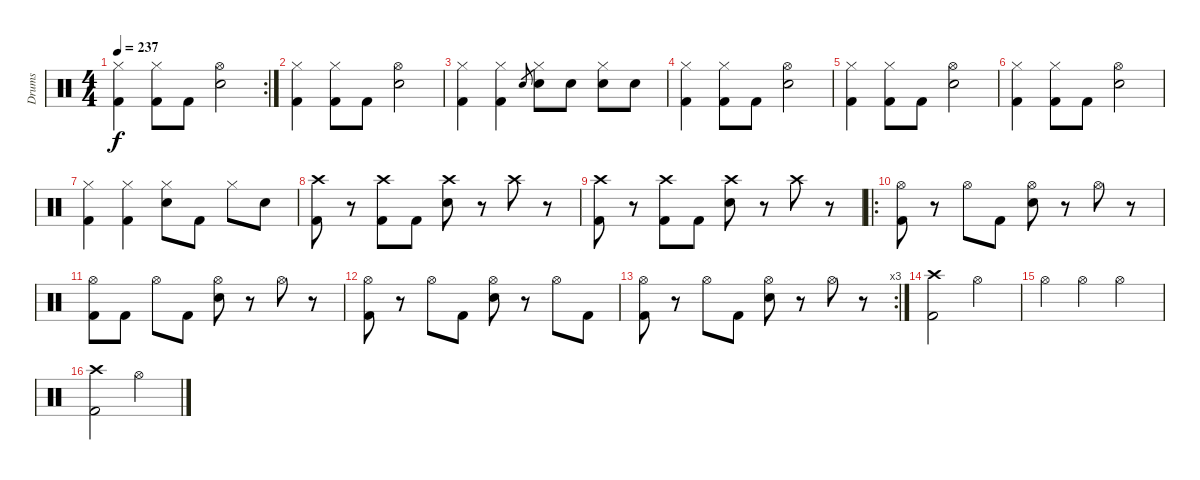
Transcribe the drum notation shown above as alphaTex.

\track ("Drums" "Drums") {instrument percussion}
\staff {score}
\articulation defaults
\rc 2
\ts (4 4)
\tempo 237
\clef neutral
\ks c
("Hi-Hat (closed)" "Kick (hit) 2").4{dy f} ("Hi-Hat (closed)" "Kick (hit) 2").8 "Kick (hit) 2".8 ("Hi-Hat (open)" "Snare (hit) 2").2 |
("Hi-Hat (closed)" "Kick (hit) 2").4 ("Hi-Hat (closed)" "Kick (hit) 2").8 "Kick (hit) 2".8 ("Hi-Hat (open)" "Snare (hit) 2").2 |
("Hi-Hat (closed)" "Kick (hit) 2").4 ("Hi-Hat (closed)" "Kick (hit) 2").4 "Snare (hit) 2".8{gr} ("Hi-Hat (closed)" "Snare (hit) 2").8 "Snare (hit) 2".8 ("Hi-Hat (closed)" "Snare (hit) 2").8 "Snare (hit) 2".8 |
("Hi-Hat (closed)" "Kick (hit) 2").4 ("Hi-Hat (closed)" "Kick (hit) 2").8 "Kick (hit) 2".8 ("Hi-Hat (open)" "Snare (hit) 2").2 |
("Hi-Hat (closed)" "Kick (hit) 2").4 ("Hi-Hat (closed)" "Kick (hit) 2").8 "Kick (hit) 2".8 ("Hi-Hat (open)" "Snare (hit) 2").2 |
("Hi-Hat (closed)" "Kick (hit) 2").4 ("Hi-Hat (closed)" "Kick (hit) 2").8 "Kick (hit) 2".8 ("Hi-Hat (open)" "Snare (hit) 2").2 |
("Hi-Hat (closed)" "Kick (hit) 2").4 ("Hi-Hat (closed)" "Kick (hit) 2").4 ("Hi-Hat (closed)" "Snare (hit) 2").8 "Kick (hit) 2".8 "Hi-Hat (closed)".8 "Snare (hit) 2".8 |
("Crash high (hit)" "Kick (hit) 2").8 r.8 ("Crash high (hit)" "Kick (hit) 2").8 "Kick (hit) 2".8 ("Crash high (hit)" "Snare (hit) 2").8 r.8 "Crash high (hit)".8 r.8 |
("Crash high (hit)" "Kick (hit) 2").8 r.8 ("Crash high (hit)" "Kick (hit) 2").8 "Kick (hit) 2".8 ("Crash high (hit)" "Snare (hit) 2").8 r.8 "Crash high (hit)".8 r.8 |
\ro
("Hi-Hat (open)" "Kick (hit) 2").8 r.8 "Hi-Hat (open)".8 "Kick (hit) 2".8 ("Hi-Hat (open)" "Snare (hit) 2").8 r.8 "Hi-Hat (open)".8 r.8 |
("Hi-Hat (open)" "Kick (hit) 2").8 "Kick (hit) 2".8 "Hi-Hat (open)".8 "Kick (hit) 2".8 ("Hi-Hat (open)" "Snare (hit) 2").8 r.8 "Hi-Hat (open)".8 r.8 |
("Hi-Hat (open)" "Kick (hit) 2").8 r.8 "Hi-Hat (open)".8 "Kick (hit) 2".8 ("Hi-Hat (open)" "Snare (hit) 2").8 r.8 "Hi-Hat (open)".8 "Kick (hit) 2".8 |
\rc 3
("Hi-Hat (open)" "Kick (hit) 2").8 r.8 "Hi-Hat (open)".8 "Kick (hit) 2".8 ("Hi-Hat (open)" "Snare (hit) 2").8 r.8 "Hi-Hat (open)".8 r.8 |
("Crash high (hit)" "Kick (hit) 2").2 "Hi-Hat (open)".2 |
"Hi-Hat (open)".4 "Hi-Hat (open)".4 "Hi-Hat (open)".2 |
("Crash high (hit)" "Kick (hit) 2").2 "Hi-Hat (open)".2
